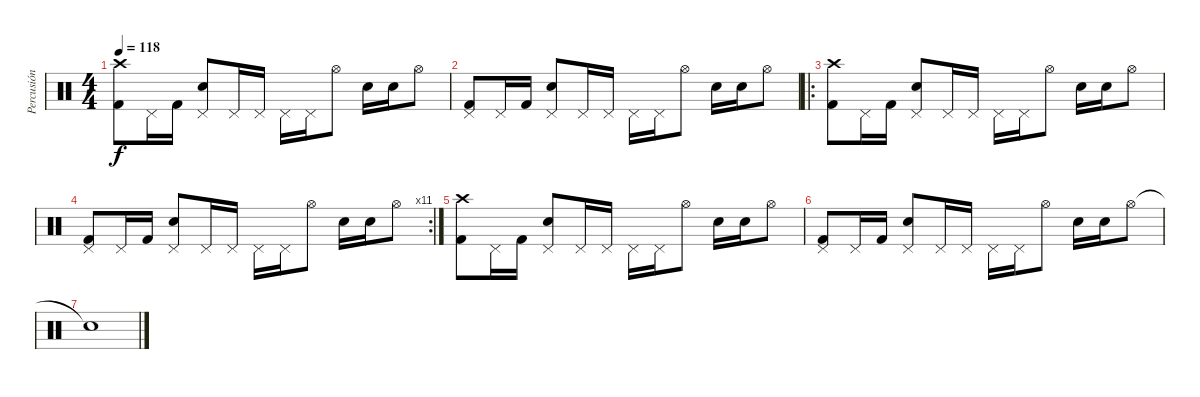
\track ("Percusión" "Percusión") {instrument percussion}
\staff {score}
\articulation defaults
\ts (4 4)
\tempo 118
\clef neutral
\ks c
("Crash high (hit)" "Kick (hit) 2").8{dy f} "Pedal Hi-Hat (hit)".16 "Kick (hit) 2".16 ("Pedal Hi-Hat (hit)" "Snare (hit) 2").8 "Pedal Hi-Hat (hit)".16 "Pedal Hi-Hat (hit)".16 "Pedal Hi-Hat (hit)".16 "Pedal Hi-Hat (hit)".16 "Hi-Hat (open)".8 "Snare (hit) 2".16 "Snare (hit) 2".16 "Hi-Hat (open)".8 |
("Pedal Hi-Hat (hit)" "Kick (hit) 2").8 "Pedal Hi-Hat (hit)".16 "Kick (hit) 2".16 ("Pedal Hi-Hat (hit)" "Snare (hit) 2").8 "Pedal Hi-Hat (hit)".16 "Pedal Hi-Hat (hit)".16 "Pedal Hi-Hat (hit)".16 "Pedal Hi-Hat (hit)".16 "Hi-Hat (open)".8 "Snare (hit) 2".16 "Snare (hit) 2".16 "Hi-Hat (open)".8 |
\ro
("Crash high (hit)" "Kick (hit) 2").8 "Pedal Hi-Hat (hit)".16 "Kick (hit) 2".16 ("Pedal Hi-Hat (hit)" "Snare (hit) 2").8 "Pedal Hi-Hat (hit)".16 "Pedal Hi-Hat (hit)".16 "Pedal Hi-Hat (hit)".16 "Pedal Hi-Hat (hit)".16 "Hi-Hat (open)".8 "Snare (hit) 2".16 "Snare (hit) 2".16 "Hi-Hat (open)".8 |
\rc 11
("Pedal Hi-Hat (hit)" "Kick (hit) 2").8 "Pedal Hi-Hat (hit)".16 "Kick (hit) 2".16 ("Pedal Hi-Hat (hit)" "Snare (hit) 2").8 "Pedal Hi-Hat (hit)".16 "Pedal Hi-Hat (hit)".16 "Pedal Hi-Hat (hit)".16 "Pedal Hi-Hat (hit)".16 "Hi-Hat (open)".8 "Snare (hit) 2".16 "Snare (hit) 2".16 "Hi-Hat (open)".8 |
("Crash high (hit)" "Kick (hit) 2").8 "Pedal Hi-Hat (hit)".16 "Kick (hit) 2".16 ("Pedal Hi-Hat (hit)" "Snare (hit) 2").8 "Pedal Hi-Hat (hit)".16 "Pedal Hi-Hat (hit)".16 "Pedal Hi-Hat (hit)".16 "Pedal Hi-Hat (hit)".16 "Hi-Hat (open)".8 "Snare (hit) 2".16 "Snare (hit) 2".16 "Hi-Hat (open)".8 |
("Pedal Hi-Hat (hit)" "Kick (hit) 2").8 "Pedal Hi-Hat (hit)".16 "Kick (hit) 2".16 ("Pedal Hi-Hat (hit)" "Snare (hit) 2").8 "Pedal Hi-Hat (hit)".16 "Pedal Hi-Hat (hit)".16 "Pedal Hi-Hat (hit)".16 "Pedal Hi-Hat (hit)".16 "Hi-Hat (open)".8 "Snare (hit) 2".16 "Snare (hit) 2".16 "Hi-Hat (open)".8 |
"Snare (hit)"{t}.1
